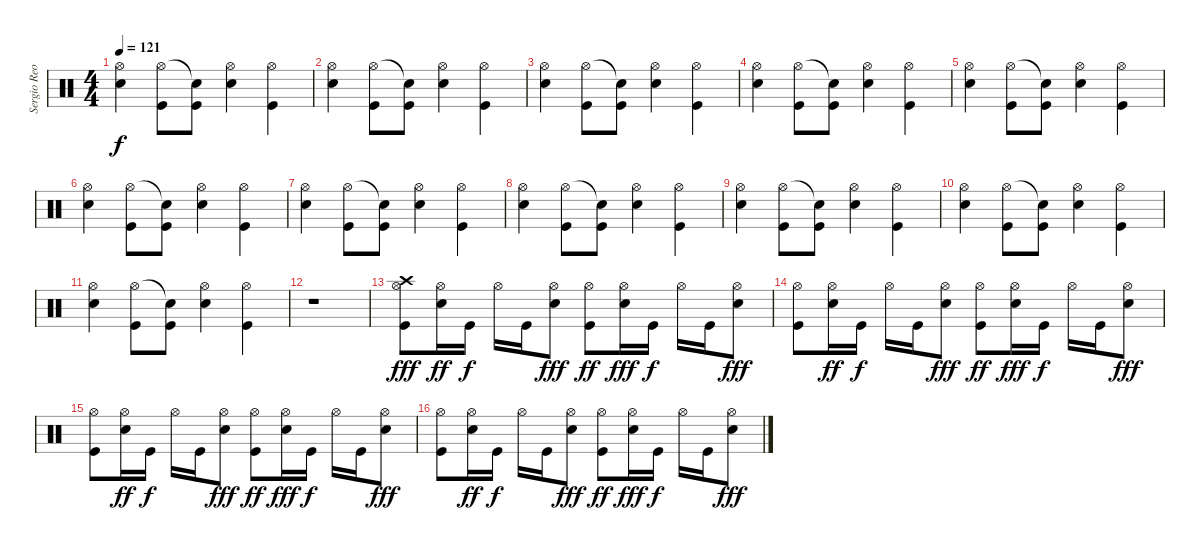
\track ("Sergio Reoli" "Sergio Reo") {instrument percussion}
\staff {score}
\articulation defaults
\ts (4 4)
\tempo 121
\clef neutral
\ks c
("Snare (hit) 2" "Hi-Hat (open)").4{dy f} ("Hi-Hat (open)" "Kick (hit)").8 ("Snare (hit)"{t} "Kick (hit)").8 ("Snare (hit) 2" "Hi-Hat (open)").4 ("Hi-Hat (open)" "Kick (hit)").4 |
("Snare (hit) 2" "Hi-Hat (open)").4 ("Hi-Hat (open)" "Kick (hit)").8 ("Snare (hit)"{t} "Kick (hit)").8 ("Snare (hit) 2" "Hi-Hat (open)").4 ("Hi-Hat (open)" "Kick (hit)").4 |
("Snare (hit) 2" "Hi-Hat (open)").4 ("Hi-Hat (open)" "Kick (hit)").8 ("Snare (hit)"{t} "Kick (hit)").8 ("Snare (hit) 2" "Hi-Hat (open)").4 ("Hi-Hat (open)" "Kick (hit)").4 |
("Snare (hit) 2" "Hi-Hat (open)").4 ("Hi-Hat (open)" "Kick (hit)").8 ("Snare (hit)"{t} "Kick (hit)").8 ("Snare (hit) 2" "Hi-Hat (open)").4 ("Hi-Hat (open)" "Kick (hit)").4 |
("Snare (hit) 2" "Hi-Hat (open)").4 ("Hi-Hat (open)" "Kick (hit)").8 ("Snare (hit)"{t} "Kick (hit)").8 ("Snare (hit) 2" "Hi-Hat (open)").4 ("Hi-Hat (open)" "Kick (hit)").4 |
("Snare (hit) 2" "Hi-Hat (open)").4 ("Hi-Hat (open)" "Kick (hit)").8 ("Snare (hit)"{t} "Kick (hit)").8 ("Snare (hit) 2" "Hi-Hat (open)").4 ("Hi-Hat (open)" "Kick (hit)").4 |
("Snare (hit) 2" "Hi-Hat (open)").4 ("Hi-Hat (open)" "Kick (hit)").8 ("Snare (hit)"{t} "Kick (hit)").8 ("Snare (hit) 2" "Hi-Hat (open)").4 ("Hi-Hat (open)" "Kick (hit)").4 |
("Snare (hit) 2" "Hi-Hat (open)").4 ("Hi-Hat (open)" "Kick (hit)").8 ("Snare (hit)"{t} "Kick (hit)").8 ("Snare (hit) 2" "Hi-Hat (open)").4 ("Hi-Hat (open)" "Kick (hit)").4 |
("Snare (hit) 2" "Hi-Hat (open)").4 ("Hi-Hat (open)" "Kick (hit)").8 ("Snare (hit)"{t} "Kick (hit)").8 ("Snare (hit) 2" "Hi-Hat (open)").4 ("Hi-Hat (open)" "Kick (hit)").4 |
("Snare (hit) 2" "Hi-Hat (open)").4 ("Hi-Hat (open)" "Kick (hit)").8 ("Snare (hit)"{t} "Kick (hit)").8 ("Snare (hit) 2" "Hi-Hat (open)").4 ("Hi-Hat (open)" "Kick (hit)").4 |
("Snare (hit) 2" "Hi-Hat (open)").4 ("Hi-Hat (open)" "Kick (hit)").8 ("Snare (hit)"{t} "Kick (hit)").8 ("Snare (hit) 2" "Hi-Hat (open)").4 ("Hi-Hat (open)" "Kick (hit)").4 |
r.1 |
("Kick (hit)" "Hi-Hat (open)" "Crash high (hit)").8{dy fff} ("Snare (hit) 2" "Hi-Hat (open)").16{dy ff} "Kick (hit)".16{dy f} "Hi-Hat (open)".16 "Kick (hit)".16 ("Snare (hit) 2" "Hi-Hat (open)").8{dy fff} ("Kick (hit)" "Hi-Hat (open)").8{dy ff} ("Snare (hit) 2" "Hi-Hat (open)").16{dy fff} "Kick (hit)".16{dy f} "Hi-Hat (open)".16 "Kick (hit)".16 ("Snare (hit) 2" "Hi-Hat (open)").8{dy fff} |
("Kick (hit)" "Hi-Hat (open)").8 ("Snare (hit) 2" "Hi-Hat (open)").16{dy ff} "Kick (hit)".16{dy f} "Hi-Hat (open)".16 "Kick (hit)".16 ("Snare (hit) 2" "Hi-Hat (open)").8{dy fff} ("Kick (hit)" "Hi-Hat (open)").8{dy ff} ("Snare (hit) 2" "Hi-Hat (open)").16{dy fff} "Kick (hit)".16{dy f} "Hi-Hat (open)".16 "Kick (hit)".16 ("Snare (hit) 2" "Hi-Hat (open)").8{dy fff} |
("Kick (hit)" "Hi-Hat (open)").8 ("Snare (hit) 2" "Hi-Hat (open)").16{dy ff} "Kick (hit)".16{dy f} "Hi-Hat (open)".16 "Kick (hit)".16 ("Snare (hit) 2" "Hi-Hat (open)").8{dy fff} ("Kick (hit)" "Hi-Hat (open)").8{dy ff} ("Snare (hit) 2" "Hi-Hat (open)").16{dy fff} "Kick (hit)".16{dy f} "Hi-Hat (open)".16 "Kick (hit)".16 ("Snare (hit) 2" "Hi-Hat (open)").8{dy fff} |
("Kick (hit)" "Hi-Hat (open)").8 ("Snare (hit) 2" "Hi-Hat (open)").16{dy ff} "Kick (hit)".16{dy f} "Hi-Hat (open)".16 "Kick (hit)".16 ("Snare (hit) 2" "Hi-Hat (open)").8{dy fff} ("Kick (hit)" "Hi-Hat (open)").8{dy ff} ("Snare (hit) 2" "Hi-Hat (open)").16{dy fff} "Kick (hit)".16{dy f} "Hi-Hat (open)".16 "Kick (hit)".16 ("Snare (hit) 2" "Hi-Hat (open)").8{dy fff}
